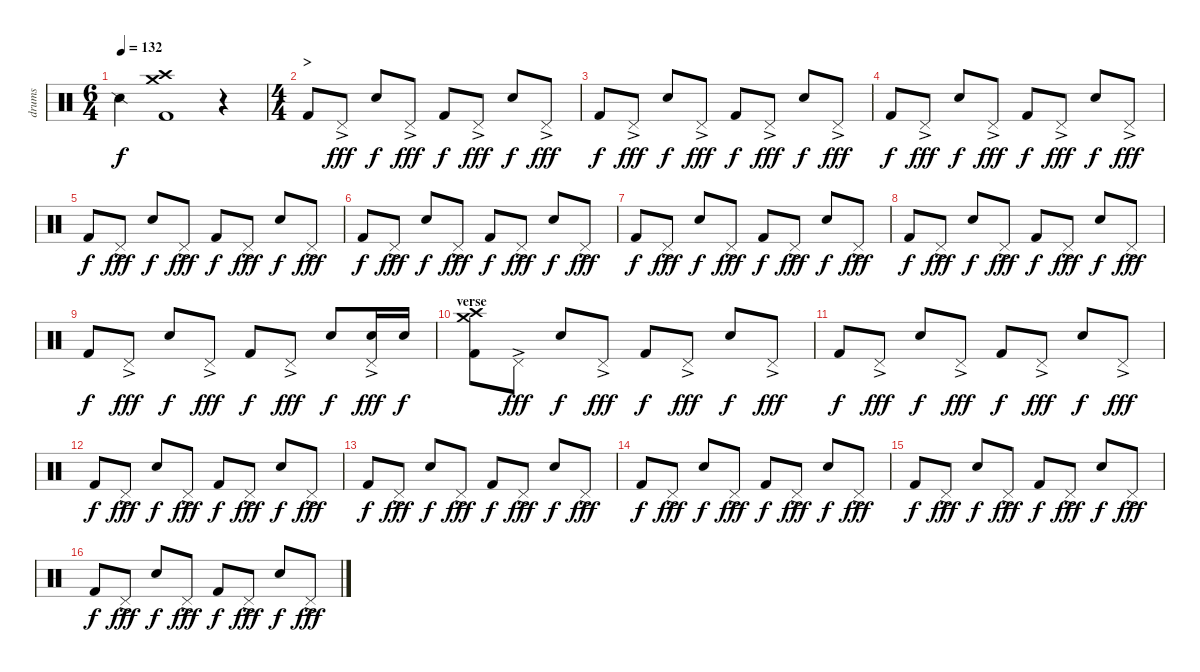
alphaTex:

\track ("drums" "drums") {instrument percussion}
\staff {score}
\articulation defaults
\ts (6 4)
\tempo 132
\clef neutral
\ks c "Snare (side stick) 2".4{dy f}
("Kick (hit) 2" "Crash medium (hit)" "Crash high (hit)").1 r.4 |
\ts (4 4)
\section ("" ">")
"Kick (hit) 2".8 "Pedal Hi-Hat (hit)"{ac}.8{dy fff} "Snare (hit) 2".8{dy f} "Pedal Hi-Hat (hit)"{ac}.8{dy fff} "Kick (hit) 2".8{dy f} "Pedal Hi-Hat (hit)"{ac}.8{dy fff} "Snare (hit) 2".8{dy f} "Pedal Hi-Hat (hit)"{ac}.8{dy fff} |
"Kick (hit) 2".8{dy f} "Pedal Hi-Hat (hit)"{ac}.8{dy fff} "Snare (hit) 2".8{dy f} "Pedal Hi-Hat (hit)"{ac}.8{dy fff} "Kick (hit) 2".8{dy f} "Pedal Hi-Hat (hit)"{ac}.8{dy fff} "Snare (hit) 2".8{dy f} "Pedal Hi-Hat (hit)"{ac}.8{dy fff} |
"Kick (hit) 2".8{dy f} "Pedal Hi-Hat (hit)"{ac}.8{dy fff} "Snare (hit) 2".8{dy f} "Pedal Hi-Hat (hit)"{ac}.8{dy fff} "Kick (hit) 2".8{dy f} "Pedal Hi-Hat (hit)"{ac}.8{dy fff} "Snare (hit) 2".8{dy f} "Pedal Hi-Hat (hit)"{ac}.8{dy fff} |
"Kick (hit) 2".8{dy f} "Pedal Hi-Hat (hit)"{ac}.8{dy fff} "Snare (hit) 2".8{dy f} "Pedal Hi-Hat (hit)"{ac}.8{dy fff} "Kick (hit) 2".8{dy f} "Pedal Hi-Hat (hit)"{ac}.8{dy fff} "Snare (hit) 2".8{dy f} "Pedal Hi-Hat (hit)"{ac}.8{dy fff} |
"Kick (hit) 2".8{dy f} "Pedal Hi-Hat (hit)"{ac}.8{dy fff} "Snare (hit) 2".8{dy f} "Pedal Hi-Hat (hit)"{ac}.8{dy fff} "Kick (hit) 2".8{dy f} "Pedal Hi-Hat (hit)"{ac}.8{dy fff} "Snare (hit) 2".8{dy f} "Pedal Hi-Hat (hit)"{ac}.8{dy fff} |
"Kick (hit) 2".8{dy f} "Pedal Hi-Hat (hit)"{ac}.8{dy fff} "Snare (hit) 2".8{dy f} "Pedal Hi-Hat (hit)"{ac}.8{dy fff} "Kick (hit) 2".8{dy f} "Pedal Hi-Hat (hit)"{ac}.8{dy fff} "Snare (hit) 2".8{dy f} "Pedal Hi-Hat (hit)"{ac}.8{dy fff} |
"Kick (hit) 2".8{dy f} "Pedal Hi-Hat (hit)"{ac}.8{dy fff} "Snare (hit) 2".8{dy f} "Pedal Hi-Hat (hit)"{ac}.8{dy fff} "Kick (hit) 2".8{dy f} "Pedal Hi-Hat (hit)"{ac}.8{dy fff} "Snare (hit) 2".8{dy f} "Pedal Hi-Hat (hit)"{ac}.8{dy fff} |
"Kick (hit) 2".8{dy f} "Pedal Hi-Hat (hit)"{ac}.8{dy fff} "Snare (hit) 2".8{dy f} "Pedal Hi-Hat (hit)"{ac}.8{dy fff} "Kick (hit) 2".8{dy f} "Pedal Hi-Hat (hit)"{ac}.8{dy fff} "Snare (hit) 2".8{dy f} ("Pedal Hi-Hat (hit)"{ac} "Snare (hit) 2").16{dy fff} "Snare (hit) 2".16{dy f} |
\section ("" "verse")
("Kick (hit) 2" "Crash medium (hit)" "Crash high (hit)").8 "Pedal Hi-Hat (hit)"{ac}.8{dy fff} "Snare (hit) 2".8{dy f} "Pedal Hi-Hat (hit)"{ac}.8{dy fff} "Kick (hit) 2".8{dy f} "Pedal Hi-Hat (hit)"{ac}.8{dy fff} "Snare (hit) 2".8{dy f} "Pedal Hi-Hat (hit)"{ac}.8{dy fff} |
"Kick (hit) 2".8{dy f} "Pedal Hi-Hat (hit)"{ac}.8{dy fff} "Snare (hit) 2".8{dy f} "Pedal Hi-Hat (hit)"{ac}.8{dy fff} "Kick (hit) 2".8{dy f} "Pedal Hi-Hat (hit)"{ac}.8{dy fff} "Snare (hit) 2".8{dy f} "Pedal Hi-Hat (hit)"{ac}.8{dy fff} |
"Kick (hit) 2".8{dy f} "Pedal Hi-Hat (hit)"{ac}.8{dy fff} "Snare (hit) 2".8{dy f} "Pedal Hi-Hat (hit)"{ac}.8{dy fff} "Kick (hit) 2".8{dy f} "Pedal Hi-Hat (hit)"{ac}.8{dy fff} "Snare (hit) 2".8{dy f} "Pedal Hi-Hat (hit)"{ac}.8{dy fff} |
"Kick (hit) 2".8{dy f} "Pedal Hi-Hat (hit)"{ac}.8{dy fff} "Snare (hit) 2".8{dy f} "Pedal Hi-Hat (hit)"{ac}.8{dy fff} "Kick (hit) 2".8{dy f} "Pedal Hi-Hat (hit)"{ac}.8{dy fff} "Snare (hit) 2".8{dy f} "Pedal Hi-Hat (hit)"{ac}.8{dy fff} |
"Kick (hit) 2".8{dy f} "Pedal Hi-Hat (hit)"{ac}.8{dy fff} "Snare (hit) 2".8{dy f} "Pedal Hi-Hat (hit)"{ac}.8{dy fff} "Kick (hit) 2".8{dy f} "Pedal Hi-Hat (hit)"{ac}.8{dy fff} "Snare (hit) 2".8{dy f} "Pedal Hi-Hat (hit)"{ac}.8{dy fff} |
"Kick (hit) 2".8{dy f} "Pedal Hi-Hat (hit)"{ac}.8{dy fff} "Snare (hit) 2".8{dy f} "Pedal Hi-Hat (hit)"{ac}.8{dy fff} "Kick (hit) 2".8{dy f} "Pedal Hi-Hat (hit)"{ac}.8{dy fff} "Snare (hit) 2".8{dy f} "Pedal Hi-Hat (hit)"{ac}.8{dy fff} |
"Kick (hit) 2".8{dy f} "Pedal Hi-Hat (hit)"{ac}.8{dy fff} "Snare (hit) 2".8{dy f} "Pedal Hi-Hat (hit)"{ac}.8{dy fff} "Kick (hit) 2".8{dy f} "Pedal Hi-Hat (hit)"{ac}.8{dy fff} "Snare (hit) 2".8{dy f} "Pedal Hi-Hat (hit)"{ac}.8{dy fff}
